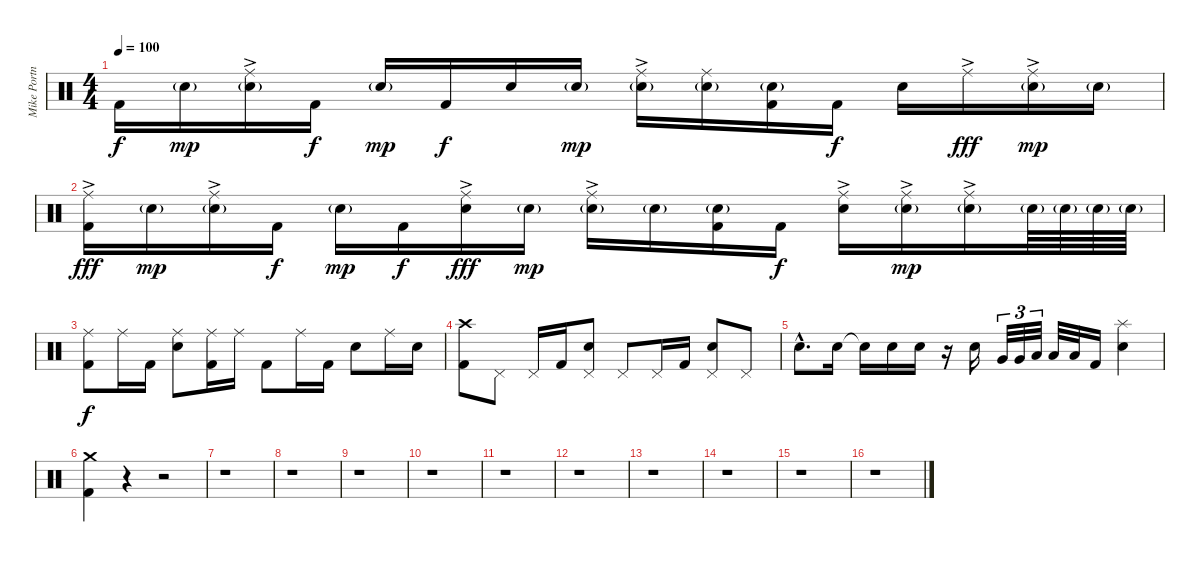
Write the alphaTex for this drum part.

\track ("Mike Portnoy" "Mike Portn") {instrument percussion}
\staff {score}
\articulation defaults
\ts (4 4)
\tempo 100
\clef neutral
\ks c "Kick (hit) 2".16{dy f volume 16} "Electric Snare (hit)"{g}.16{dy mp volume 8}
("Ride (middle)"{ac} "Electric Snare (hit)"{g}).16 "Kick (hit) 2".16{dy f volume 16} "Electric Snare (hit)"{g}.16{dy mp volume 8} "Kick (hit) 2".16{dy f volume 16} "Electric Snare (hit)".16 "Electric Snare (hit)"{g}.16{dy mp volume 8} ("Ride (middle)"{ac} "Electric Snare (hit)"{g}).16 ("Ride (middle)" "Electric Snare (hit)"{g}).16{volume 8} ("Electric Snare (hit)"{g} "Kick (hit) 2").16 "Kick (hit) 2".16{dy f volume 16} "Electric Snare (hit)".16 "Ride (middle)"{ac}.16{dy fff} ("Ride (middle)"{ac} "Electric Snare (hit)"{g}).16{dy mp} "Electric Snare (hit)"{g}.16 |
("Ride (middle)"{ac} "Kick (hit) 2").16{dy fff volume 16} "Electric Snare (hit)"{g}.16{dy mp volume 8} ("Ride (middle)"{ac} "Electric Snare (hit)"{g}).16 "Kick (hit) 2".16{dy f volume 16} "Electric Snare (hit)"{g}.16{dy mp volume 8} "Kick (hit) 2".16{dy f volume 16} ("Ride (middle)"{ac} "Electric Snare (hit)").16{dy fff} "Electric Snare (hit)"{g}.16{dy mp volume 8} ("Ride (middle)"{ac} "Electric Snare (hit)"{g}).16 "Electric Snare (hit)"{g}.16{volume 8} ("Electric Snare (hit)"{g} "Kick (hit) 2").16 "Kick (hit) 2".16{dy f volume 16} ("Ride (middle)"{ac} "Electric Snare (hit)").16 ("Ride (middle)"{ac} "Electric Snare (hit)"{g}).16{dy mp volume 8} ("Ride (middle)"{ac} "Electric Snare (hit)"{g}).16 "Electric Snare (hit)"{g}.64 "Electric Snare (hit)"{g}.64 "Electric Snare (hit)"{g}.64 "Electric Snare (hit)"{g}.64 |
("Ride (middle)" "Kick (hit) 2").8{dy f volume 16} "Ride (middle)".16 "Kick (hit) 2".16 ("Ride (middle)" "Electric Snare (hit)").8 ("Ride (middle)" "Kick (hit) 2").16 "Ride (middle)".16 "Kick (hit) 2".8 "Ride (middle)".16 "Kick (hit) 2".16 "Electric Snare (hit)".8 "Ride (middle)".16 "Electric Snare (hit)".16 |
("Crash high (hit)" "Kick (hit) 2").8 "Pedal Hi-Hat (hit)".8 "Pedal Hi-Hat (hit)".16 "Kick (hit) 2".16 ("Pedal Hi-Hat (hit)" "Electric Snare (hit)").8 "Pedal Hi-Hat (hit)".8 "Pedal Hi-Hat (hit)".16 "Kick (hit) 2".16 ("Pedal Hi-Hat (hit)" "Electric Snare (hit)").8 "Pedal Hi-Hat (hit)".8 |
"Electric Snare (hit)"{hac}.8{d} "Electric Snare (hit)".16 "Snare (hit)"{t}.16 "Electric Snare (hit)".16 "Electric Snare (hit)".16 r.16 "Electric Snare (hit)".16 "Very Low Tom (hit)".32{tu (3 2)} "Very Low Tom (hit)".32{tu (3 2)} "Low Floor Tom (hit)".32{tu (3 2)} "Low Tom (hit)".32 "Low Tom (hit)".32 "Kick (hit) 2".16 ("Splash (hit)" "Electric Snare (hit)").4 |
("Crash medium (hit)" "Kick (hit) 2").4 r.4 r.2 |
r.1 |
r.1 |
r.1 |
r.1 |
r.1 |
r.1 |
r.1 |
r.1 |
r.1 |
r.1
